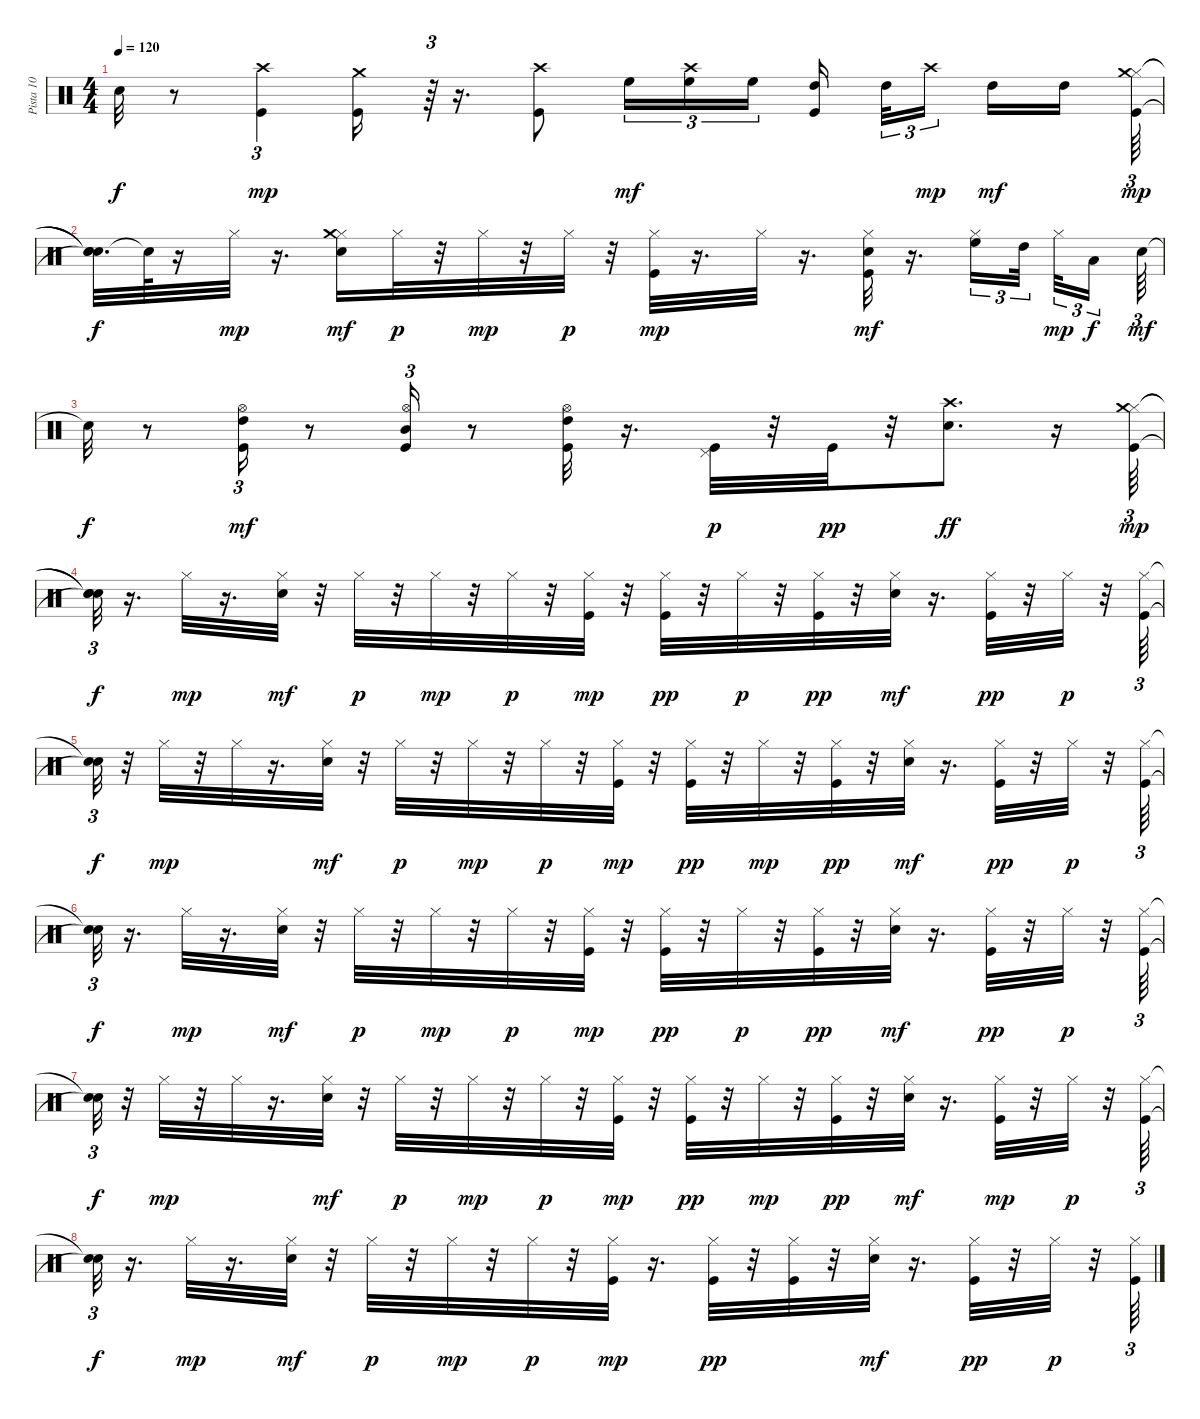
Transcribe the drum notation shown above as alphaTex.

\track ("Pista 10" "Pista 10") {instrument percussion}
\staff {score}
\articulation defaults
\ts (4 4)
\tempo 120
\clef neutral
\ks c "Snare (hit)"{t}.32{dy f}
r.8 ("Kick (hit)" "Crash high (hit)").4{tu (3 2) dy mp} ("Kick (hit)" "Crash medium (hit)").16 r.64{tu (3 2)} r.16{d} ("Kick (hit)" "Crash high (hit)").8 "High Floor Tom (hit)".16{tu (3 2) dy mf} ("Crash high (hit)" "High Floor Tom (hit)").16{tu (3 2)} "High Floor Tom (hit)".16{tu (3 2) beam splitsecondary} ("Kick (hit)" "High Tom (hit)").16 "High Tom (hit)".32{tu (3 2)} "Crash high (hit)".16{tu (3 2) dy mp beam splitsecondary} "High Tom (hit)".16{dy mf} "High Tom (hit)".16{beam splitsecondary} ("Kick (hit)" "Hi-Hat (closed)" "Crash medium (hit)").64{tu (3 2) dy mp} |
("Snare (hit)"{t} "Snare (hit)"{t} "Snare (hit)"{t}).32{d dy f} "Snare (hit)"{t}.64 r.16 "Hi-Hat (closed)".32{dy mp} r.16{d} ("Hi-Hat (closed)" "Crash medium (hit)" "Snare (hit) 2").16{dy mf} "Hi-Hat (closed)".32{dy p} r.32 "Hi-Hat (closed)".32{dy mp} r.32 "Hi-Hat (closed)".32{dy p} r.32 ("Kick (hit)" "Hi-Hat (closed)").32{dy mp} r.16{d} "Hi-Hat (closed)".32 r.16{d} ("Kick (hit)" "Hi-Hat (closed)" "Snare (hit) 2").32{dy mf} r.16{d} ("Hi-Hat (closed)" "High Floor Tom (hit)").16{tu (3 2)} "High Tom (hit)".32{tu (3 2) beam splitsecondary} "Hi-Hat (closed)".32{tu (3 2) dy mp} "Low Tom (hit)".16{tu (3 2) dy f} "Snare (hit) 2".64{tu (3 2) dy mf} |
"Snare (hit)"{t}.32{dy f} r.8 ("Kick (hit)" "Hi-Hat (open)" "High Tom (hit)").16{tu (3 2) dy mf} r.8 ("Kick (hit)" "Hi-Hat (open)" "Mid Tom (hit)").16{tu (3 2)} r.8 ("Kick (hit)" "Hi-Hat (open)" "High Tom (hit)").32 r.16{d} ("Kick (hit)" "Pedal Hi-Hat (hit)").32{dy p} r.32 "Kick (hit)".32{dy pp} r.32 ("Crash high (hit)" "Snare (hit) 2").8{d dy ff} r.16 ("Kick (hit)" "Hi-Hat (closed)" "Crash medium (hit)").64{tu (3 2) dy mp} |
("Snare (hit)"{t} "Snare (hit)"{t} "Snare (hit)"{t}).32{tu (3 2) dy f} r.16{d} "Hi-Hat (closed)".32{dy mp} r.16{d} ("Hi-Hat (closed)" "Snare (hit) 2").32{dy mf} r.32 "Hi-Hat (closed)".32{dy p} r.32 "Hi-Hat (closed)".32{dy mp} r.32 "Hi-Hat (closed)".32{dy p} r.32 ("Kick (hit)" "Hi-Hat (closed)").32{dy mp} r.32 ("Hi-Hat (closed)" "Kick (hit)").32{dy pp} r.32 "Hi-Hat (closed)".32{dy p} r.32 ("Hi-Hat (closed)" "Kick (hit)").32{dy pp} r.32 ("Hi-Hat (closed)" "Snare (hit) 2").32{dy mf} r.16{d} ("Hi-Hat (closed)" "Kick (hit)").32{dy pp} r.32 "Hi-Hat (closed)".32{dy p} r.32 ("Kick (hit)" "Hi-Hat (closed)").64{tu (3 2)} |
("Snare (hit)"{t} "Snare (hit)"{t}).32{tu (3 2) dy f} r.32 "Hi-Hat (closed)".32{dy mp} r.32 "Hi-Hat (closed)".32 r.16{d} ("Hi-Hat (closed)" "Snare (hit) 2").32{dy mf} r.32 "Hi-Hat (closed)".32{dy p} r.32 "Hi-Hat (closed)".32{dy mp} r.32 "Hi-Hat (closed)".32{dy p} r.32 ("Kick (hit)" "Hi-Hat (closed)").32{dy mp} r.32 ("Hi-Hat (closed)" "Kick (hit)").32{dy pp} r.32 "Hi-Hat (closed)".32{dy mp} r.32 ("Hi-Hat (closed)" "Kick (hit)").32{dy pp} r.32 ("Hi-Hat (closed)" "Snare (hit) 2").32{dy mf} r.16{d} ("Hi-Hat (closed)" "Kick (hit)").32{dy pp} r.32 "Hi-Hat (closed)".32{dy p} r.32 ("Kick (hit)" "Hi-Hat (closed)").64{tu (3 2)} |
("Snare (hit)"{t} "Snare (hit)"{t}).32{tu (3 2) dy f} r.16{d} "Hi-Hat (closed)".32{dy mp} r.16{d} ("Hi-Hat (closed)" "Snare (hit) 2").32{dy mf} r.32 "Hi-Hat (closed)".32{dy p} r.32 "Hi-Hat (closed)".32{dy mp} r.32 "Hi-Hat (closed)".32{dy p} r.32 ("Kick (hit)" "Hi-Hat (closed)").32{dy mp} r.32 ("Hi-Hat (closed)" "Kick (hit)").32{dy pp} r.32 "Hi-Hat (closed)".32{dy p} r.32 ("Hi-Hat (closed)" "Kick (hit)").32{dy pp} r.32 ("Hi-Hat (closed)" "Snare (hit) 2").32{dy mf} r.16{d} ("Hi-Hat (closed)" "Kick (hit)").32{dy pp} r.32 "Hi-Hat (closed)".32{dy p} r.32 ("Kick (hit)" "Hi-Hat (closed)").64{tu (3 2)} |
("Snare (hit)"{t} "Snare (hit)"{t}).32{tu (3 2) dy f} r.32 "Hi-Hat (closed)".32{dy mp} r.32 "Hi-Hat (closed)".32 r.16{d} ("Hi-Hat (closed)" "Snare (hit) 2").32{dy mf} r.32 "Hi-Hat (closed)".32{dy p} r.32 "Hi-Hat (closed)".32{dy mp} r.32 "Hi-Hat (closed)".32{dy p} r.32 ("Kick (hit)" "Hi-Hat (closed)").32{dy mp} r.32 ("Kick (hit)" "Hi-Hat (closed)").32{dy pp} r.32 "Hi-Hat (closed)".32{dy mp} r.32 ("Hi-Hat (closed)" "Kick (hit)").32{dy pp} r.32 ("Hi-Hat (closed)" "Snare (hit) 2").32{dy mf} r.16{d} ("Kick (hit)" "Hi-Hat (closed)").32{dy mp} r.32 "Hi-Hat (closed)".32{dy p} r.32 ("Kick (hit)" "Hi-Hat (closed)").64{tu (3 2)} |
("Snare (hit)"{t} "Snare (hit)"{t}).32{tu (3 2) dy f} r.16{d} "Hi-Hat (closed)".32{dy mp} r.16{d} ("Hi-Hat (closed)" "Snare (hit) 2").32{dy mf} r.32 "Hi-Hat (closed)".32{dy p} r.32 "Hi-Hat (closed)".32{dy mp} r.32 "Hi-Hat (closed)".32{dy p} r.32 ("Kick (hit)" "Hi-Hat (closed)").32{dy mp} r.16{d} ("Hi-Hat (closed)" "Kick (hit)").32{dy pp} r.32 ("Hi-Hat (closed)" "Kick (hit)").32 r.32 ("Hi-Hat (closed)" "Snare (hit) 2").32{dy mf} r.16{d} ("Hi-Hat (closed)" "Kick (hit)").32{dy pp} r.32 "Hi-Hat (closed)".32{dy p} r.32 ("Kick (hit)" "Hi-Hat (closed)").64{tu (3 2)}
